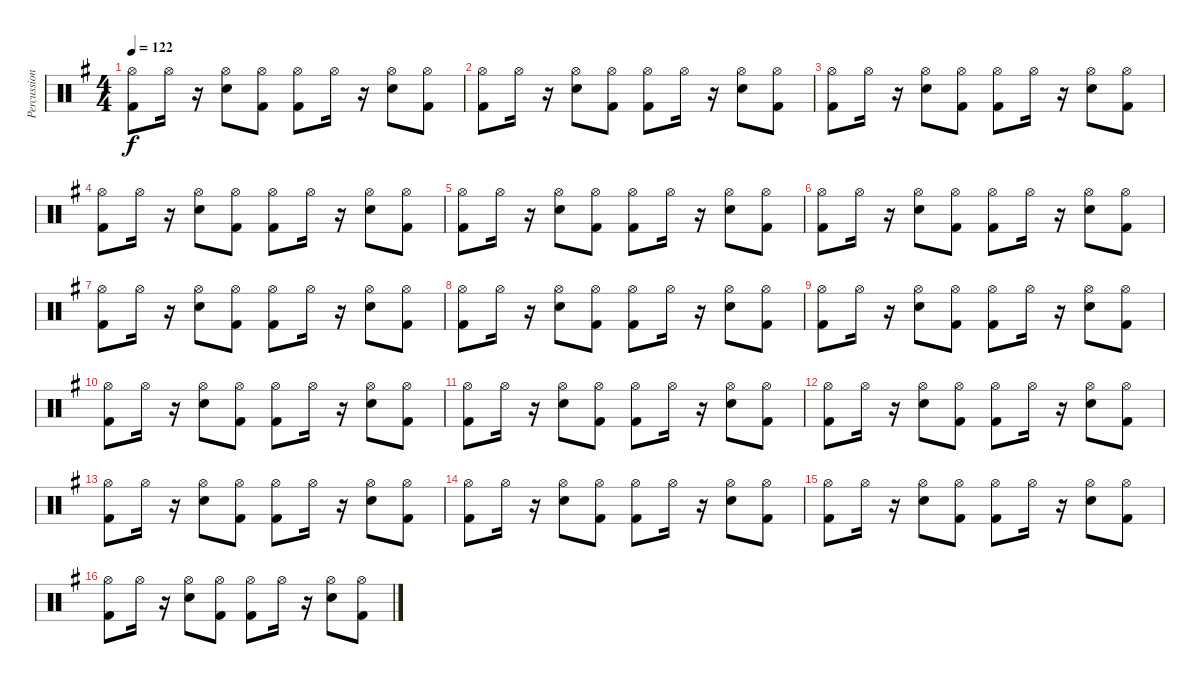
\track ("Percussion" "Percussion") {instrument percussion}
\staff {score}
\articulation defaults
\ts (4 4)
\tempo 122
\clef neutral
\ks g
("Hi-Hat (open)" "Kick (hit) 2").8{dy f} "Hi-Hat (open)".16 r.16 ("Electric Snare (hit)" "Hi-Hat (open)").8 ("Kick (hit) 2" "Hi-Hat (open)").8 ("Kick (hit) 2" "Hi-Hat (open)").8 "Hi-Hat (open)".16 r.16 ("Electric Snare (hit)" "Hi-Hat (open)").8 ("Kick (hit) 2" "Hi-Hat (open)").8 |
("Kick (hit) 2" "Hi-Hat (open)").8 "Hi-Hat (open)".16 r.16 ("Electric Snare (hit)" "Hi-Hat (open)").8 ("Kick (hit) 2" "Hi-Hat (open)").8 ("Kick (hit) 2" "Hi-Hat (open)").8 "Hi-Hat (open)".16 r.16 ("Electric Snare (hit)" "Hi-Hat (open)").8 ("Kick (hit) 2" "Hi-Hat (open)").8 |
("Hi-Hat (open)" "Kick (hit) 2").8 "Hi-Hat (open)".16 r.16 ("Electric Snare (hit)" "Hi-Hat (open)").8 ("Kick (hit) 2" "Hi-Hat (open)").8 ("Kick (hit) 2" "Hi-Hat (open)").8 "Hi-Hat (open)".16 r.16 ("Electric Snare (hit)" "Hi-Hat (open)").8 ("Kick (hit) 2" "Hi-Hat (open)").8 |
("Kick (hit) 2" "Hi-Hat (open)").8 "Hi-Hat (open)".16 r.16 ("Electric Snare (hit)" "Hi-Hat (open)").8 ("Kick (hit) 2" "Hi-Hat (open)").8 ("Kick (hit) 2" "Hi-Hat (open)").8 "Hi-Hat (open)".16 r.16 ("Electric Snare (hit)" "Hi-Hat (open)").8 ("Kick (hit) 2" "Hi-Hat (open)").8 |
("Kick (hit) 2" "Hi-Hat (open)").8 "Hi-Hat (open)".16 r.16 ("Electric Snare (hit)" "Hi-Hat (open)").8 ("Kick (hit) 2" "Hi-Hat (open)").8 ("Kick (hit) 2" "Hi-Hat (open)").8 "Hi-Hat (open)".16 r.16 ("Electric Snare (hit)" "Hi-Hat (open)").8 ("Kick (hit) 2" "Hi-Hat (open)").8 |
("Kick (hit) 2" "Hi-Hat (open)").8 "Hi-Hat (open)".16 r.16 ("Electric Snare (hit)" "Hi-Hat (open)").8 ("Kick (hit) 2" "Hi-Hat (open)").8 ("Kick (hit) 2" "Hi-Hat (open)").8 "Hi-Hat (open)".16 r.16 ("Electric Snare (hit)" "Hi-Hat (open)").8 ("Kick (hit) 2" "Hi-Hat (open)").8 |
("Kick (hit) 2" "Hi-Hat (open)").8 "Hi-Hat (open)".16 r.16 ("Electric Snare (hit)" "Hi-Hat (open)").8 ("Kick (hit) 2" "Hi-Hat (open)").8 ("Kick (hit) 2" "Hi-Hat (open)").8 "Hi-Hat (open)".16 r.16 ("Electric Snare (hit)" "Hi-Hat (open)").8 ("Kick (hit) 2" "Hi-Hat (open)").8 |
("Kick (hit) 2" "Hi-Hat (open)").8 "Hi-Hat (open)".16 r.16 ("Electric Snare (hit)" "Hi-Hat (open)").8 ("Kick (hit) 2" "Hi-Hat (open)").8 ("Kick (hit) 2" "Hi-Hat (open)").8 "Hi-Hat (open)".16 r.16 ("Electric Snare (hit)" "Hi-Hat (open)").8 ("Kick (hit) 2" "Hi-Hat (open)").8 |
("Kick (hit) 2" "Hi-Hat (open)").8 "Hi-Hat (open)".16 r.16 ("Electric Snare (hit)" "Hi-Hat (open)").8 ("Kick (hit) 2" "Hi-Hat (open)").8 ("Kick (hit) 2" "Hi-Hat (open)").8 "Hi-Hat (open)".16 r.16 ("Electric Snare (hit)" "Hi-Hat (open)").8 ("Kick (hit) 2" "Hi-Hat (open)").8 |
("Kick (hit) 2" "Hi-Hat (open)").8 "Hi-Hat (open)".16 r.16 ("Electric Snare (hit)" "Hi-Hat (open)").8 ("Kick (hit) 2" "Hi-Hat (open)").8 ("Kick (hit) 2" "Hi-Hat (open)").8 "Hi-Hat (open)".16 r.16 ("Electric Snare (hit)" "Hi-Hat (open)").8 ("Kick (hit) 2" "Hi-Hat (open)").8 |
("Kick (hit) 2" "Hi-Hat (open)").8 "Hi-Hat (open)".16 r.16 ("Electric Snare (hit)" "Hi-Hat (open)").8 ("Kick (hit) 2" "Hi-Hat (open)").8 ("Kick (hit) 2" "Hi-Hat (open)").8 "Hi-Hat (open)".16 r.16 ("Electric Snare (hit)" "Hi-Hat (open)").8 ("Kick (hit) 2" "Hi-Hat (open)").8 |
("Kick (hit) 2" "Hi-Hat (open)").8 "Hi-Hat (open)".16 r.16 ("Electric Snare (hit)" "Hi-Hat (open)").8 ("Kick (hit) 2" "Hi-Hat (open)").8 ("Kick (hit) 2" "Hi-Hat (open)").8 "Hi-Hat (open)".16 r.16 ("Electric Snare (hit)" "Hi-Hat (open)").8 ("Kick (hit) 2" "Hi-Hat (open)").8 |
("Kick (hit) 2" "Hi-Hat (open)").8 "Hi-Hat (open)".16 r.16 ("Electric Snare (hit)" "Hi-Hat (open)").8 ("Kick (hit) 2" "Hi-Hat (open)").8 ("Kick (hit) 2" "Hi-Hat (open)").8 "Hi-Hat (open)".16 r.16 ("Electric Snare (hit)" "Hi-Hat (open)").8 ("Kick (hit) 2" "Hi-Hat (open)").8 |
("Hi-Hat (open)" "Kick (hit) 2").8 "Hi-Hat (open)".16 r.16 ("Electric Snare (hit)" "Hi-Hat (open)").8 ("Kick (hit) 2" "Hi-Hat (open)").8 ("Kick (hit) 2" "Hi-Hat (open)").8 "Hi-Hat (open)".16 r.16 ("Electric Snare (hit)" "Hi-Hat (open)").8 ("Kick (hit) 2" "Hi-Hat (open)").8 |
("Hi-Hat (open)" "Kick (hit) 2").8 "Hi-Hat (open)".16 r.16 ("Electric Snare (hit)" "Hi-Hat (open)").8 ("Kick (hit) 2" "Hi-Hat (open)").8 ("Kick (hit) 2" "Hi-Hat (open)").8 "Hi-Hat (open)".16 r.16 ("Electric Snare (hit)" "Hi-Hat (open)").8 ("Kick (hit) 2" "Hi-Hat (open)").8 |
("Hi-Hat (open)" "Kick (hit) 2").8 "Hi-Hat (open)".16 r.16 ("Electric Snare (hit)" "Hi-Hat (open)").8 ("Kick (hit) 2" "Hi-Hat (open)").8 ("Kick (hit) 2" "Hi-Hat (open)").8 "Hi-Hat (open)".16 r.16 ("Electric Snare (hit)" "Hi-Hat (open)").8 ("Kick (hit) 2" "Hi-Hat (open)").8
